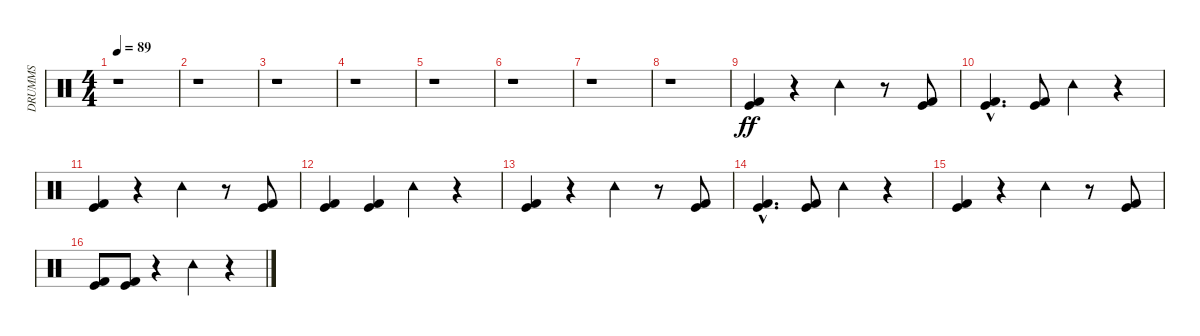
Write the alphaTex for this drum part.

\track ("DRUMMS" "DRUMMS") {instrument percussion}
\staff {score}
\articulation defaults
\ts (4 4)
\tempo 89
\clef neutral
\ks c
r.1{dy ff} |
r.1 |
r.1 |
r.1 |
r.1 |
r.1 |
r.1 |
r.1 |
("Kick (hit)" "Kick (hit) 2").4 r.4 "Tambourine (hit)".4 r.8 ("Kick (hit)" "Kick (hit) 2").8 |
("Kick (hit)"{hac} "Kick (hit) 2"{hac}).4{d} ("Kick (hit)" "Kick (hit) 2").8 "Tambourine (hit)".4 r.4 |
("Kick (hit)" "Kick (hit) 2").4 r.4 "Tambourine (hit)".4 r.8 ("Kick (hit)" "Kick (hit) 2").8 |
("Kick (hit)" "Kick (hit) 2").4 ("Kick (hit)" "Kick (hit) 2").4 "Tambourine (hit)".4 r.4 |
("Kick (hit)" "Kick (hit) 2").4 r.4 "Tambourine (hit)".4 r.8 ("Kick (hit)" "Kick (hit) 2").8 |
("Kick (hit)"{hac} "Kick (hit) 2"{hac}).4{d} ("Kick (hit)" "Kick (hit) 2").8 "Tambourine (hit)".4 r.4 |
("Kick (hit)" "Kick (hit) 2").4 r.4 "Tambourine (hit)".4 r.8 ("Kick (hit)" "Kick (hit) 2").8 |
("Kick (hit)" "Kick (hit) 2").8 ("Kick (hit)" "Kick (hit) 2").8 r.4 "Tambourine (hit)".4 r.4
